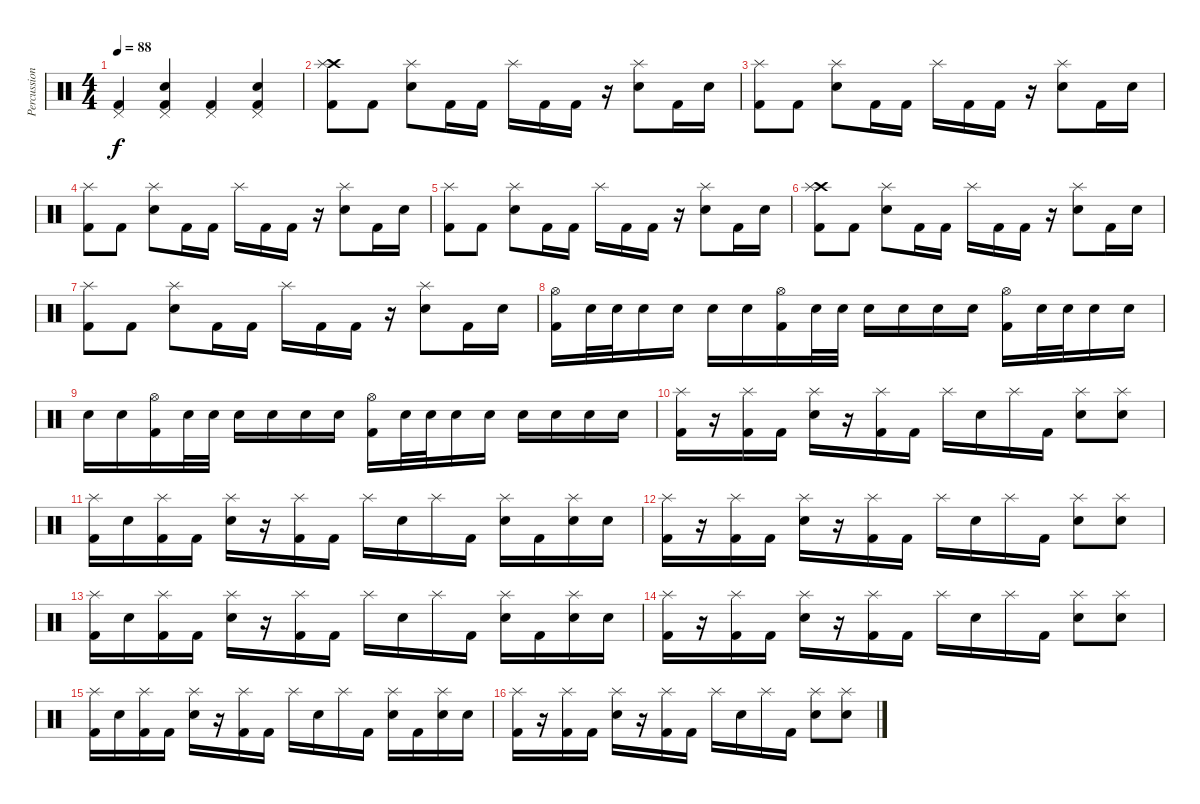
\track ("Percussion" "Percussion") {instrument percussion}
\staff {score}
\articulation defaults
\ts (4 4)
\tempo 88
\clef neutral
\ks c
("Pedal Hi-Hat (hit)" "Kick (hit) 2").4{dy f} ("Pedal Hi-Hat (hit)" "Electric Snare (hit)" "Kick (hit) 2").4 ("Pedal Hi-Hat (hit)" "Kick (hit) 2").4 ("Pedal Hi-Hat (hit)" "Electric Snare (hit)" "Kick (hit) 2").4 |
("Crash high (hit)" "Splash (hit)" "Kick (hit) 2").8 "Kick (hit) 2".8 ("Splash (hit)" "Electric Snare (hit)").8 "Kick (hit) 2".16 "Kick (hit) 2".16 "Splash (hit)".16 "Kick (hit) 2".16 "Kick (hit) 2".16 r.16 ("Splash (hit)" "Electric Snare (hit)").8 "Kick (hit) 2".16 "Electric Snare (hit)".16 |
("Splash (hit)" "Kick (hit) 2").8 "Kick (hit) 2".8 ("Splash (hit)" "Electric Snare (hit)").8 "Kick (hit) 2".16 "Kick (hit) 2".16 "Splash (hit)".16 "Kick (hit) 2".16 "Kick (hit) 2".16 r.16 ("Splash (hit)" "Electric Snare (hit)").8 "Kick (hit) 2".16 "Electric Snare (hit)".16 |
("Splash (hit)" "Kick (hit) 2").8 "Kick (hit) 2".8 ("Splash (hit)" "Electric Snare (hit)").8 "Kick (hit) 2".16 "Kick (hit) 2".16 "Splash (hit)".16 "Kick (hit) 2".16 "Kick (hit) 2".16 r.16 ("Splash (hit)" "Electric Snare (hit)").8 "Kick (hit) 2".16 "Electric Snare (hit)".16 |
("Splash (hit)" "Kick (hit) 2").8 "Kick (hit) 2".8 ("Splash (hit)" "Electric Snare (hit)").8 "Kick (hit) 2".16 "Kick (hit) 2".16 "Splash (hit)".16 "Kick (hit) 2".16 "Kick (hit) 2".16 r.16 ("Splash (hit)" "Electric Snare (hit)").8 "Kick (hit) 2".16 "Electric Snare (hit)".16 |
("Crash high (hit)" "Splash (hit)" "Kick (hit) 2").8 "Kick (hit) 2".8 ("Splash (hit)" "Electric Snare (hit)").8 "Kick (hit) 2".16 "Kick (hit) 2".16 "Splash (hit)".16 "Kick (hit) 2".16 "Kick (hit) 2".16 r.16 ("Splash (hit)" "Electric Snare (hit)").8 "Kick (hit) 2".16 "Electric Snare (hit)".16 |
("Splash (hit)" "Kick (hit) 2").8 "Kick (hit) 2".8 ("Splash (hit)" "Electric Snare (hit)").8 "Kick (hit) 2".16 "Kick (hit) 2".16 "Splash (hit)".16 "Kick (hit) 2".16 "Kick (hit) 2".16 r.16 ("Splash (hit)" "Electric Snare (hit)").8 "Kick (hit) 2".16 "Electric Snare (hit)".16 |
("Hi-Hat (open)" "Kick (hit) 2").16 "Electric Snare (hit)".32 "Electric Snare (hit)".32 "Electric Snare (hit)".16 "Electric Snare (hit)".16 "Electric Snare (hit)".16 "Electric Snare (hit)".16 ("Hi-Hat (open)" "Kick (hit) 2").16 "Electric Snare (hit)".32 "Electric Snare (hit)".32 "Electric Snare (hit)".16 "Electric Snare (hit)".16 "Electric Snare (hit)".16 "Electric Snare (hit)".16 ("Hi-Hat (open)" "Kick (hit) 2").16 "Electric Snare (hit)".32 "Electric Snare (hit)".32 "Electric Snare (hit)".16 "Electric Snare (hit)".16 |
"Electric Snare (hit)".16 "Electric Snare (hit)".16 ("Hi-Hat (open)" "Kick (hit) 2").16 "Electric Snare (hit)".32 "Electric Snare (hit)".32 "Electric Snare (hit)".16 "Electric Snare (hit)".16 "Electric Snare (hit)".16 "Electric Snare (hit)".16 ("Hi-Hat (open)" "Kick (hit) 2").16 "Electric Snare (hit)".32 "Electric Snare (hit)".32 "Electric Snare (hit)".16 "Electric Snare (hit)".16 "Electric Snare (hit)".16 "Electric Snare (hit)".16 "Electric Snare (hit)".16 "Electric Snare (hit)".16 |
("Splash (hit)" "Kick (hit) 2").16 r.16 ("Splash (hit)" "Kick (hit) 2").16 "Kick (hit) 2".16 ("Splash (hit)" "Electric Snare (hit)").16 r.16 ("Splash (hit)" "Kick (hit) 2").16 "Kick (hit) 2".16 "Splash (hit)".16 "Electric Snare (hit)".16 "Splash (hit)".16 "Kick (hit) 2".16 ("Splash (hit)" "Electric Snare (hit)").8 ("Splash (hit)" "Electric Snare (hit)").8 |
("Splash (hit)" "Kick (hit) 2").16 "Electric Snare (hit)".16 ("Splash (hit)" "Kick (hit) 2").16 "Kick (hit) 2".16 ("Splash (hit)" "Electric Snare (hit)").16 r.16 ("Splash (hit)" "Kick (hit) 2").16 "Kick (hit) 2".16 "Splash (hit)".16 "Electric Snare (hit)".16 "Splash (hit)".16 "Kick (hit) 2".16 ("Splash (hit)" "Electric Snare (hit)").16 "Kick (hit) 2".16 ("Splash (hit)" "Electric Snare (hit)").16 "Electric Snare (hit)".16 |
("Splash (hit)" "Kick (hit) 2").16 r.16 ("Splash (hit)" "Kick (hit) 2").16 "Kick (hit) 2".16 ("Splash (hit)" "Electric Snare (hit)").16 r.16 ("Splash (hit)" "Kick (hit) 2").16 "Kick (hit) 2".16 "Splash (hit)".16 "Electric Snare (hit)".16 "Splash (hit)".16 "Kick (hit) 2".16 ("Splash (hit)" "Electric Snare (hit)").8 ("Splash (hit)" "Electric Snare (hit)").8 |
("Splash (hit)" "Kick (hit) 2").16 "Electric Snare (hit)".16 ("Splash (hit)" "Kick (hit) 2").16 "Kick (hit) 2".16 ("Splash (hit)" "Electric Snare (hit)").16 r.16 ("Splash (hit)" "Kick (hit) 2").16 "Kick (hit) 2".16 "Splash (hit)".16 "Electric Snare (hit)".16 "Splash (hit)".16 "Kick (hit) 2".16 ("Splash (hit)" "Electric Snare (hit)").16 "Kick (hit) 2".16 ("Splash (hit)" "Electric Snare (hit)").16 "Electric Snare (hit)".16 |
("Splash (hit)" "Kick (hit) 2").16 r.16 ("Splash (hit)" "Kick (hit) 2").16 "Kick (hit) 2".16 ("Splash (hit)" "Electric Snare (hit)").16 r.16 ("Splash (hit)" "Kick (hit) 2").16 "Kick (hit) 2".16 "Splash (hit)".16 "Electric Snare (hit)".16 "Splash (hit)".16 "Kick (hit) 2".16 ("Splash (hit)" "Electric Snare (hit)").8 ("Splash (hit)" "Electric Snare (hit)").8 |
("Splash (hit)" "Kick (hit) 2").16 "Electric Snare (hit)".16 ("Splash (hit)" "Kick (hit) 2").16 "Kick (hit) 2".16 ("Splash (hit)" "Electric Snare (hit)").16 r.16 ("Splash (hit)" "Kick (hit) 2").16 "Kick (hit) 2".16 "Splash (hit)".16 "Electric Snare (hit)".16 "Splash (hit)".16 "Kick (hit) 2".16 ("Splash (hit)" "Electric Snare (hit)").16 "Kick (hit) 2".16 ("Splash (hit)" "Electric Snare (hit)").16 "Electric Snare (hit)".16 |
("Splash (hit)" "Kick (hit) 2").16 r.16 ("Splash (hit)" "Kick (hit) 2").16 "Kick (hit) 2".16 ("Splash (hit)" "Electric Snare (hit)").16 r.16 ("Splash (hit)" "Kick (hit) 2").16 "Kick (hit) 2".16 "Splash (hit)".16 "Electric Snare (hit)".16 "Splash (hit)".16 "Kick (hit) 2".16 ("Splash (hit)" "Electric Snare (hit)").8 ("Splash (hit)" "Electric Snare (hit)").8
